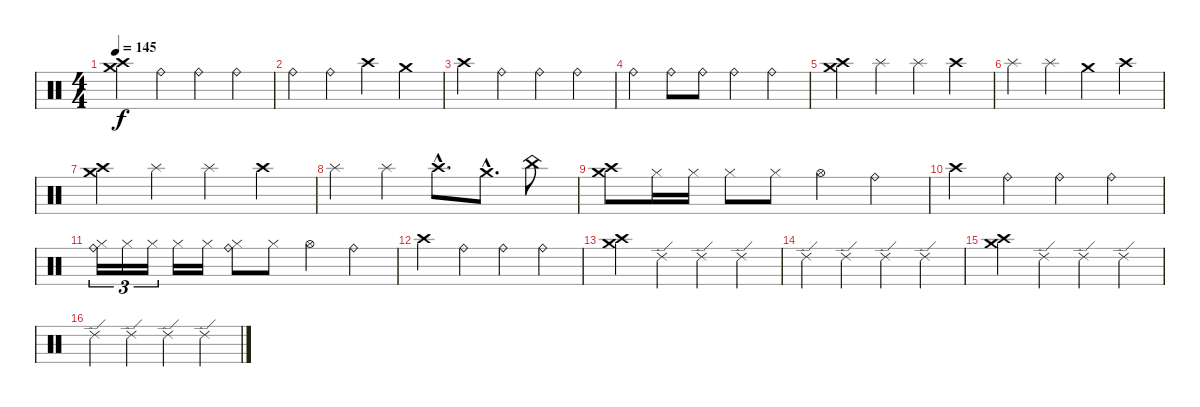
\track "" {instrument percussion}
\staff {score}
\articulation defaults
\ts (4 4)
\tempo 145
\clef neutral
\ks c
("Crash medium (hit)" "Crash high (hit)").4{dy f} "Ride (bell)".4 "Ride (bell)".4 "Ride (bell)".4 |
"Ride (bell)".4 "Ride (bell)".4 "Crash high (hit)".4 "Crash medium (hit)".4 |
"Crash high (hit)".4 "Ride (bell)".4 "Ride (bell)".4 "Ride (bell)".4 |
"Ride (bell)".4 "Ride (bell)".8 "Ride (bell)".8 "Ride (bell)".4 "Ride (bell)".4 |
("Crash medium (hit)" "Crash high (hit)").4 "Splash (hit)".4 "Splash (hit)".4 "Crash high (hit)".4 |
"Splash (hit)".4 "Splash (hit)".4 "Crash medium (hit)".4 "Crash high (hit)".4 |
("Crash medium (hit)" "Crash high (hit)").4 "Splash (hit)".4 "Splash (hit)".4 "Crash high (hit)".4 |
"Splash (hit)".4 "Splash (hit)".4 "Crash high (hit)"{hac}.8{d} "Crash medium (hit)"{hac}.8{d} "China (hit)".8 |
("Crash medium (hit)" "Crash high (hit)").8 "Hi-Hat (closed)".16 "Hi-Hat (closed)".16 "Hi-Hat (closed)".8 "Hi-Hat (closed)".8 "Hi-Hat (open)".4 "Ride (bell)".4 |
"Crash high (hit)".4 "Ride (bell)".4 "Ride (bell)".4 "Ride (bell)".4 |
("Ride (bell)" "Hi-Hat (closed)").16{tu (3 2)} "Hi-Hat (closed)".16{tu (3 2)} "Hi-Hat (closed)".16{tu (3 2)} "Hi-Hat (closed)".16 "Hi-Hat (closed)".16 ("Ride (bell)" "Hi-Hat (closed)").8 "Hi-Hat (closed)".8 "Hi-Hat (open)".4 "Ride (bell)".4 |
"Crash high (hit)".4 "Ride (bell)".4 "Ride (bell)".4 "Ride (bell)".4 |
("Crash medium (hit)" "Crash high (hit)").4 "Ride (edge) 2".4 "Ride (edge) 2".4 "Ride (edge) 2".4 |
"Ride (edge) 2".4 "Ride (edge) 2".4 "Ride (edge) 2".4 "Ride (edge) 2".4 |
("Crash medium (hit)" "Crash high (hit)").4 "Ride (edge) 2".4 "Ride (edge) 2".4 "Ride (edge) 2".4 |
"Ride (edge) 2".4 "Ride (edge) 2".4 "Ride (edge) 2".4 "Ride (edge) 2".4
